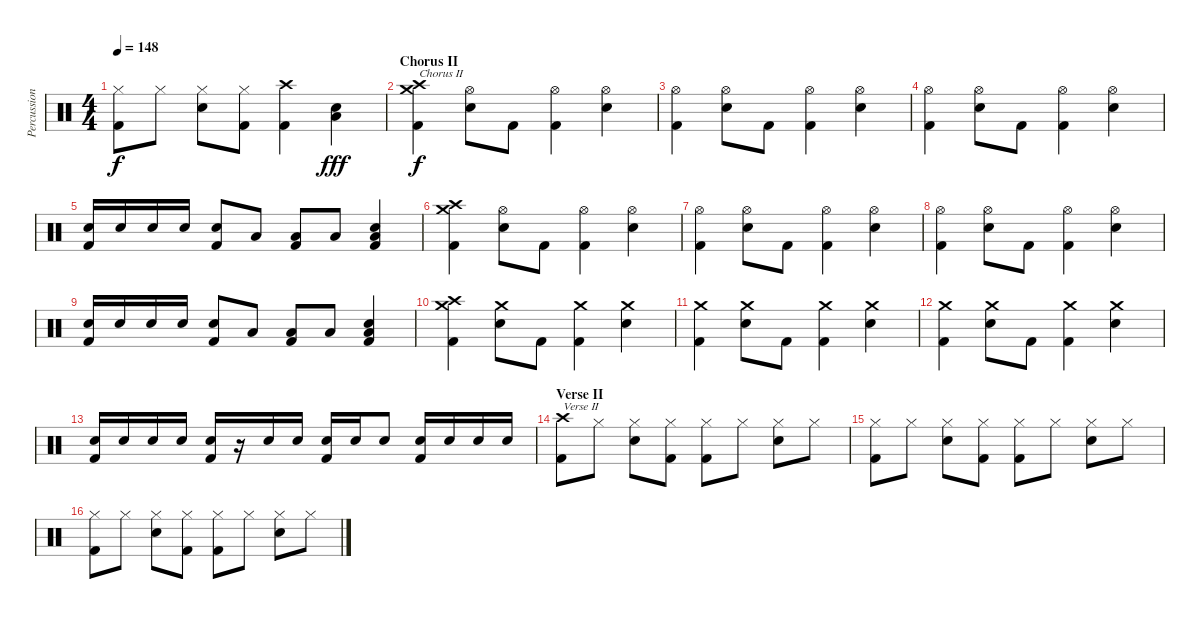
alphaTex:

\track ("Percussion" "Percussion") {instrument percussion}
\staff {score}
\articulation defaults
\ts (4 4)
\tempo 148
\clef neutral
\ks c
("Hi-Hat (closed)" "Kick (hit) 2").8{dy f} "Hi-Hat (closed)".8 ("Hi-Hat (closed)" "Electric Snare (hit)").8 ("Hi-Hat (closed)" "Kick (hit) 2").8 ("Crash high (hit)" "Kick (hit) 2").4 ("Electric Snare (hit)" "Low Floor Tom (hit)").4{dy fff} |
\section ("" "Chorus II")
("Crash medium (hit)" "Crash high (hit)" "Kick (hit) 2").4{txt "Chorus II" dy f} ("Hi-Hat (open)" "Electric Snare (hit)").8 "Kick (hit) 2".8 ("Hi-Hat (open)" "Kick (hit) 2").4 ("Hi-Hat (open)" "Electric Snare (hit)").4 |
("Hi-Hat (open)" "Kick (hit) 2").4 ("Hi-Hat (open)" "Electric Snare (hit)").8 "Kick (hit) 2".8 ("Hi-Hat (open)" "Kick (hit) 2").4 ("Hi-Hat (open)" "Electric Snare (hit)").4 |
("Hi-Hat (open)" "Kick (hit) 2").4 ("Hi-Hat (open)" "Electric Snare (hit)").8 "Kick (hit) 2".8 ("Hi-Hat (open)" "Kick (hit) 2").4 ("Hi-Hat (open)" "Electric Snare (hit)").4 |
("Electric Snare (hit)" "Kick (hit) 2").16 "Electric Snare (hit)".16 "Electric Snare (hit)".16 "Electric Snare (hit)".16 ("Electric Snare (hit)" "Kick (hit) 2").8 "Low Tom (hit)".8 ("Low Floor Tom (hit)" "Kick (hit) 2").8 "Low Floor Tom (hit)".8 ("Electric Snare (hit)" "Low Floor Tom (hit)" "Kick (hit) 2").4 |
("Crash medium (hit)" "Crash high (hit)" "Kick (hit) 2").4 ("Hi-Hat (open)" "Electric Snare (hit)").8 "Kick (hit) 2".8 ("Hi-Hat (open)" "Kick (hit) 2").4 ("Hi-Hat (open)" "Electric Snare (hit)").4 |
("Hi-Hat (open)" "Kick (hit) 2").4 ("Hi-Hat (open)" "Electric Snare (hit)").8 "Kick (hit) 2".8 ("Hi-Hat (open)" "Kick (hit) 2").4 ("Hi-Hat (open)" "Electric Snare (hit)").4 |
("Hi-Hat (open)" "Kick (hit) 2").4 ("Hi-Hat (open)" "Electric Snare (hit)").8 "Kick (hit) 2".8 ("Hi-Hat (open)" "Kick (hit) 2").4 ("Hi-Hat (open)" "Electric Snare (hit)").4 |
("Electric Snare (hit)" "Kick (hit) 2").16 "Electric Snare (hit)".16 "Electric Snare (hit)".16 "Electric Snare (hit)".16 ("Electric Snare (hit)" "Kick (hit) 2").8 "Low Tom (hit)".8 ("Low Floor Tom (hit)" "Kick (hit) 2").8 "Low Floor Tom (hit)".8 ("Electric Snare (hit)" "Low Floor Tom (hit)" "Kick (hit) 2").4 |
("Crash medium (hit)" "Crash high (hit)" "Kick (hit) 2").4 ("Crash medium (hit)" "Electric Snare (hit)").8 "Kick (hit) 2".8 ("Crash medium (hit)" "Kick (hit) 2").4 ("Crash medium (hit)" "Electric Snare (hit)").4 |
("Crash medium (hit)" "Kick (hit) 2").4 ("Crash medium (hit)" "Electric Snare (hit)").8 "Kick (hit) 2".8 ("Crash medium (hit)" "Kick (hit) 2").4 ("Crash medium (hit)" "Electric Snare (hit)").4 |
("Crash medium (hit)" "Kick (hit) 2").4 ("Crash medium (hit)" "Electric Snare (hit)").8 "Kick (hit) 2".8 ("Crash medium (hit)" "Kick (hit) 2").4 ("Crash medium (hit)" "Electric Snare (hit)").4 |
("Electric Snare (hit)" "Kick (hit) 2").16 "Electric Snare (hit)".16 "Electric Snare (hit)".16 "Electric Snare (hit)".16 ("Electric Snare (hit)" "Kick (hit) 2").16 r.16 "Electric Snare (hit)".16 "Electric Snare (hit)".16 ("Electric Snare (hit)" "Kick (hit) 2").16 "Electric Snare (hit)".16 "Electric Snare (hit)".8 ("Electric Snare (hit)" "Kick (hit) 2").16 "Electric Snare (hit)".16 "Electric Snare (hit)".16 "Electric Snare (hit)".16 |
\section ("" "Verse II")
("Crash high (hit)" "Kick (hit) 2").8{txt "Verse II"} "Hi-Hat (closed)".8 ("Hi-Hat (closed)" "Electric Snare (hit)").8 ("Hi-Hat (closed)" "Kick (hit) 2").8 ("Hi-Hat (closed)" "Kick (hit) 2").8 "Hi-Hat (closed)".8 ("Hi-Hat (closed)" "Electric Snare (hit)").8 "Hi-Hat (closed)".8 |
("Hi-Hat (closed)" "Kick (hit) 2").8 "Hi-Hat (closed)".8 ("Hi-Hat (closed)" "Electric Snare (hit)").8 ("Hi-Hat (closed)" "Kick (hit) 2").8 ("Hi-Hat (closed)" "Kick (hit) 2").8 "Hi-Hat (closed)".8 ("Hi-Hat (closed)" "Electric Snare (hit)").8 "Hi-Hat (closed)".8 |
("Hi-Hat (closed)" "Kick (hit) 2").8 "Hi-Hat (closed)".8 ("Hi-Hat (closed)" "Electric Snare (hit)").8 ("Hi-Hat (closed)" "Kick (hit) 2").8 ("Hi-Hat (closed)" "Kick (hit) 2").8 "Hi-Hat (closed)".8 ("Hi-Hat (closed)" "Electric Snare (hit)").8 "Hi-Hat (closed)".8
